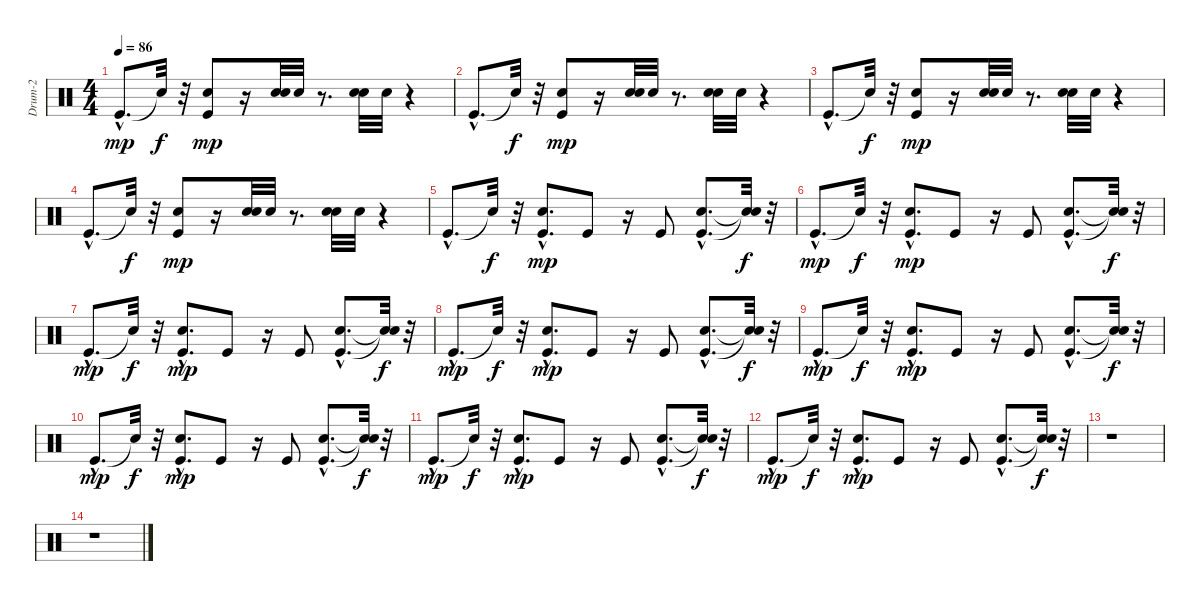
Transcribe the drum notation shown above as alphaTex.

\track ("Drum-2" "Drum-2") {instrument percussion}
\staff {score}
\articulation defaults
\ts (4 4)
\tempo 86
\clef neutral
\ks c "Kick (hit)"{hac}.8{d dy mp} "Snare (hit)"{t}.32{dy f}
r.32 ("Kick (hit)" "Electric Snare (hit)").8{dy mp} r.16 ("Electric Snare (hit)" "Electric Snare (hit)").32 "Electric Snare (hit)".32 r.8{d} ("Electric Snare (hit)" "Electric Snare (hit)").32 "Electric Snare (hit)".32 r.4 |
"Kick (hit)"{hac}.8{d} "Snare (hit)"{t}.32{dy f} r.32 ("Kick (hit)" "Electric Snare (hit)").8{dy mp} r.16 ("Electric Snare (hit)" "Electric Snare (hit)").32 "Electric Snare (hit)".32 r.8{d} ("Electric Snare (hit)" "Electric Snare (hit)").32 "Electric Snare (hit)".32 r.4 |
"Kick (hit)"{hac}.8{d} "Snare (hit)"{t}.32{dy f} r.32 ("Kick (hit)" "Electric Snare (hit)").8{dy mp} r.16 ("Electric Snare (hit)" "Electric Snare (hit)").32 "Electric Snare (hit)".32 r.8{d} ("Electric Snare (hit)" "Electric Snare (hit)").32 "Electric Snare (hit)".32 r.4 |
"Kick (hit)"{hac}.8{d} "Snare (hit)"{t}.32{dy f} r.32 ("Kick (hit)" "Electric Snare (hit)").8{dy mp} r.16 ("Electric Snare (hit)" "Electric Snare (hit)").32 "Electric Snare (hit)".32 r.8{d} ("Electric Snare (hit)" "Electric Snare (hit)").32 "Electric Snare (hit)".32 r.4 |
"Kick (hit)"{hac}.8{d} "Snare (hit)"{t}.32{dy f} r.32 ("Kick (hit)"{hac} "Electric Snare (hit)"{hac}).8{d dy mp} "Kick (hit)".8 r.16 "Kick (hit)".8 ("Kick (hit)"{hac} "Electric Snare (hit)"{hac}).8{d} ("Snare (hit)"{t} "Snare (hit)"{t}).32{dy f} r.32 |
"Kick (hit)"{hac}.8{d dy mp} "Snare (hit)"{t}.32{dy f} r.32 ("Kick (hit)"{hac} "Electric Snare (hit)"{hac}).8{d dy mp} "Kick (hit)".8 r.16 "Kick (hit)".8 ("Kick (hit)"{hac} "Electric Snare (hit)"{hac}).8{d} ("Snare (hit)"{t} "Snare (hit)"{t}).32{dy f} r.32 |
"Kick (hit)"{hac}.8{d dy mp} "Snare (hit)"{t}.32{dy f} r.32 ("Kick (hit)"{hac} "Electric Snare (hit)"{hac}).8{d dy mp} "Kick (hit)".8 r.16 "Kick (hit)".8 ("Kick (hit)"{hac} "Electric Snare (hit)"{hac}).8{d} ("Snare (hit)"{t} "Snare (hit)"{t}).32{dy f} r.32 |
"Kick (hit)"{hac}.8{d dy mp} "Snare (hit)"{t}.32{dy f} r.32 ("Kick (hit)"{hac} "Electric Snare (hit)"{hac}).8{d dy mp} "Kick (hit)".8 r.16 "Kick (hit)".8 ("Kick (hit)"{hac} "Electric Snare (hit)"{hac}).8{d} ("Snare (hit)"{t} "Snare (hit)"{t}).32{dy f} r.32 |
"Kick (hit)"{hac}.8{d dy mp} "Snare (hit)"{t}.32{dy f} r.32 ("Kick (hit)"{hac} "Electric Snare (hit)"{hac}).8{d dy mp} "Kick (hit)".8 r.16 "Kick (hit)".8 ("Kick (hit)"{hac} "Electric Snare (hit)"{hac}).8{d} ("Snare (hit)"{t} "Snare (hit)"{t}).32{dy f} r.32 |
"Kick (hit)"{hac}.8{d dy mp} "Snare (hit)"{t}.32{dy f} r.32 ("Kick (hit)"{hac} "Electric Snare (hit)"{hac}).8{d dy mp} "Kick (hit)".8 r.16 "Kick (hit)".8 ("Kick (hit)"{hac} "Electric Snare (hit)"{hac}).8{d} ("Snare (hit)"{t} "Snare (hit)"{t}).32{dy f} r.32 |
"Kick (hit)"{hac}.8{d dy mp} "Snare (hit)"{t}.32{dy f} r.32 ("Kick (hit)"{hac} "Electric Snare (hit)"{hac}).8{d dy mp} "Kick (hit)".8 r.16 "Kick (hit)".8 ("Kick (hit)"{hac} "Electric Snare (hit)"{hac}).8{d} ("Snare (hit)"{t} "Snare (hit)"{t}).32{dy f} r.32 |
"Kick (hit)"{hac}.8{d dy mp} "Snare (hit)"{t}.32{dy f} r.32 ("Kick (hit)"{hac} "Electric Snare (hit)"{hac}).8{d dy mp} "Kick (hit)".8 r.16 "Kick (hit)".8 ("Kick (hit)"{hac} "Electric Snare (hit)"{hac}).8{d} ("Snare (hit)"{t} "Snare (hit)"{t}).32{dy f} r.32 |
r.1 |
r.1
